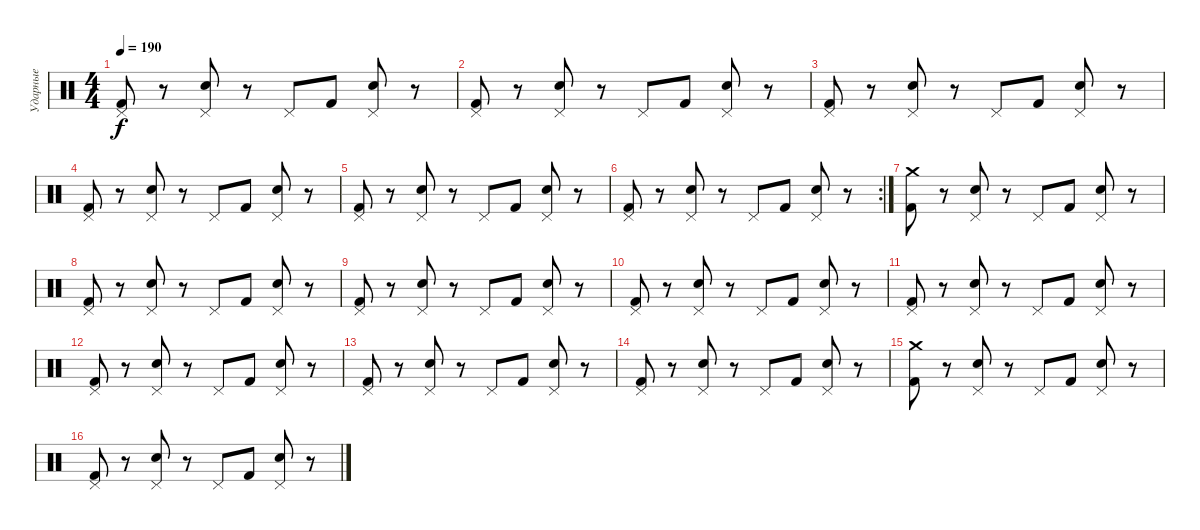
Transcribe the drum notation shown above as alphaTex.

\track ("Ударные" "Ударные") {instrument percussion}
\staff {score}
\articulation defaults
\ts (4 4)
\tempo 190
\clef neutral
\ks c
("Pedal Hi-Hat (hit)" "Kick (hit) 2").8{dy f} r.8 ("Pedal Hi-Hat (hit)" "Electric Snare (hit)").8 r.8 "Pedal Hi-Hat (hit)".8 "Kick (hit) 2".8 ("Pedal Hi-Hat (hit)" "Electric Snare (hit)").8 r.8 |
("Pedal Hi-Hat (hit)" "Kick (hit) 2").8 r.8 ("Pedal Hi-Hat (hit)" "Electric Snare (hit)").8 r.8 "Pedal Hi-Hat (hit)".8 "Kick (hit) 2".8 ("Pedal Hi-Hat (hit)" "Electric Snare (hit)").8 r.8 |
("Pedal Hi-Hat (hit)" "Kick (hit) 2").8 r.8 ("Pedal Hi-Hat (hit)" "Electric Snare (hit)").8 r.8 "Pedal Hi-Hat (hit)".8 "Kick (hit) 2".8 ("Pedal Hi-Hat (hit)" "Electric Snare (hit)").8 r.8 |
("Pedal Hi-Hat (hit)" "Kick (hit) 2").8 r.8 ("Pedal Hi-Hat (hit)" "Electric Snare (hit)").8 r.8 "Pedal Hi-Hat (hit)".8 "Kick (hit) 2".8 ("Pedal Hi-Hat (hit)" "Electric Snare (hit)").8 r.8 |
("Pedal Hi-Hat (hit)" "Kick (hit) 2").8 r.8 ("Pedal Hi-Hat (hit)" "Electric Snare (hit)").8 r.8 "Pedal Hi-Hat (hit)".8 "Kick (hit) 2".8 ("Pedal Hi-Hat (hit)" "Electric Snare (hit)").8 r.8 |
\rc 2
("Pedal Hi-Hat (hit)" "Kick (hit) 2").8 r.8 ("Pedal Hi-Hat (hit)" "Electric Snare (hit)").8 r.8 "Pedal Hi-Hat (hit)".8 "Kick (hit) 2".8 ("Pedal Hi-Hat (hit)" "Electric Snare (hit)").8 r.8 |
("Crash medium (hit)" "Kick (hit) 2").8 r.8 ("Pedal Hi-Hat (hit)" "Electric Snare (hit)").8 r.8 "Pedal Hi-Hat (hit)".8 "Kick (hit) 2".8 ("Pedal Hi-Hat (hit)" "Electric Snare (hit)").8 r.8 |
("Pedal Hi-Hat (hit)" "Kick (hit) 2").8 r.8 ("Pedal Hi-Hat (hit)" "Electric Snare (hit)").8 r.8 "Pedal Hi-Hat (hit)".8 "Kick (hit) 2".8 ("Pedal Hi-Hat (hit)" "Electric Snare (hit)").8 r.8 |
("Pedal Hi-Hat (hit)" "Kick (hit) 2").8 r.8 ("Pedal Hi-Hat (hit)" "Electric Snare (hit)").8 r.8 "Pedal Hi-Hat (hit)".8 "Kick (hit) 2".8 ("Pedal Hi-Hat (hit)" "Electric Snare (hit)").8 r.8 |
("Pedal Hi-Hat (hit)" "Kick (hit) 2").8 r.8 ("Pedal Hi-Hat (hit)" "Electric Snare (hit)").8 r.8 "Pedal Hi-Hat (hit)".8 "Kick (hit) 2".8 ("Pedal Hi-Hat (hit)" "Electric Snare (hit)").8 r.8 |
("Pedal Hi-Hat (hit)" "Kick (hit) 2").8 r.8 ("Pedal Hi-Hat (hit)" "Electric Snare (hit)").8 r.8 "Pedal Hi-Hat (hit)".8 "Kick (hit) 2".8 ("Pedal Hi-Hat (hit)" "Electric Snare (hit)").8 r.8 |
("Pedal Hi-Hat (hit)" "Kick (hit) 2").8 r.8 ("Pedal Hi-Hat (hit)" "Electric Snare (hit)").8 r.8 "Pedal Hi-Hat (hit)".8 "Kick (hit) 2".8 ("Pedal Hi-Hat (hit)" "Electric Snare (hit)").8 r.8 |
("Pedal Hi-Hat (hit)" "Kick (hit) 2").8 r.8 ("Pedal Hi-Hat (hit)" "Electric Snare (hit)").8 r.8 "Pedal Hi-Hat (hit)".8 "Kick (hit) 2".8 ("Pedal Hi-Hat (hit)" "Electric Snare (hit)").8 r.8 |
("Pedal Hi-Hat (hit)" "Kick (hit) 2").8 r.8 ("Pedal Hi-Hat (hit)" "Electric Snare (hit)").8 r.8 "Pedal Hi-Hat (hit)".8 "Kick (hit) 2".8 ("Pedal Hi-Hat (hit)" "Electric Snare (hit)").8 r.8 |
("Crash medium (hit)" "Kick (hit) 2").8 r.8 ("Pedal Hi-Hat (hit)" "Electric Snare (hit)").8 r.8 "Pedal Hi-Hat (hit)".8 "Kick (hit) 2".8 ("Pedal Hi-Hat (hit)" "Electric Snare (hit)").8 r.8 |
("Pedal Hi-Hat (hit)" "Kick (hit) 2").8 r.8 ("Pedal Hi-Hat (hit)" "Electric Snare (hit)").8 r.8 "Pedal Hi-Hat (hit)".8 "Kick (hit) 2".8 ("Pedal Hi-Hat (hit)" "Electric Snare (hit)").8 r.8
